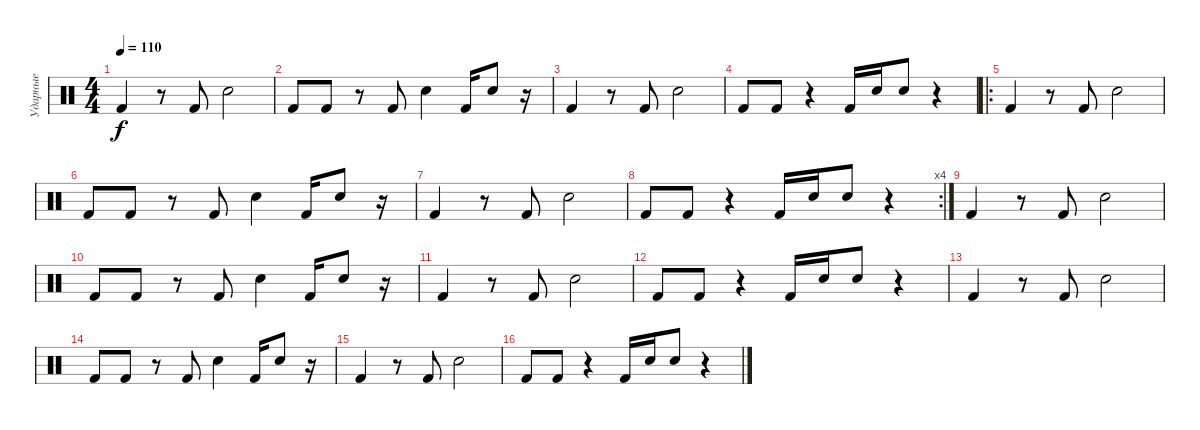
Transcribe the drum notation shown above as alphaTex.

\track ("Ударные" "Ударные") {instrument percussion}
\staff {score}
\articulation defaults
\ts (4 4)
\tempo 110
\clef neutral
\ks c "Kick (hit) 2".4{dy f}
r.8 "Kick (hit) 2".8 "Snare (hit) 2".2 |
"Kick (hit) 2".8 "Kick (hit) 2".8 r.8 "Kick (hit) 2".8 "Snare (hit) 2".4 "Kick (hit) 2".16 "Snare (hit) 2".8 r.16 |
"Kick (hit) 2".4 r.8 "Kick (hit) 2".8 "Snare (hit) 2".2 |
"Kick (hit) 2".8 "Kick (hit) 2".8 r.4 "Kick (hit) 2".16 "Snare (hit) 2".16 "Snare (hit) 2".8 r.4 |
\ro "Kick (hit) 2".4
r.8 "Kick (hit) 2".8 "Snare (hit) 2".2 |
"Kick (hit) 2".8 "Kick (hit) 2".8 r.8 "Kick (hit) 2".8 "Snare (hit) 2".4 "Kick (hit) 2".16 "Snare (hit) 2".8 r.16 |
"Kick (hit) 2".4 r.8 "Kick (hit) 2".8 "Snare (hit) 2".2 |
\rc 4 "Kick (hit) 2".8 "Kick (hit) 2".8
r.4 "Kick (hit) 2".16 "Snare (hit) 2".16 "Snare (hit) 2".8 r.4 |
"Kick (hit) 2".4 r.8 "Kick (hit) 2".8 "Snare (hit) 2".2 |
"Kick (hit) 2".8 "Kick (hit) 2".8 r.8 "Kick (hit) 2".8 "Snare (hit) 2".4 "Kick (hit) 2".16 "Snare (hit) 2".8 r.16 |
"Kick (hit) 2".4 r.8 "Kick (hit) 2".8 "Snare (hit) 2".2 |
"Kick (hit) 2".8 "Kick (hit) 2".8 r.4 "Kick (hit) 2".16 "Snare (hit) 2".16 "Snare (hit) 2".8 r.4 |
"Kick (hit) 2".4 r.8 "Kick (hit) 2".8 "Snare (hit) 2".2 |
"Kick (hit) 2".8 "Kick (hit) 2".8 r.8 "Kick (hit) 2".8 "Snare (hit) 2".4 "Kick (hit) 2".16 "Snare (hit) 2".8 r.16 |
"Kick (hit) 2".4 r.8 "Kick (hit) 2".8 "Snare (hit) 2".2 |
"Kick (hit) 2".8 "Kick (hit) 2".8 r.4 "Kick (hit) 2".16 "Snare (hit) 2".16 "Snare (hit) 2".8 r.4
